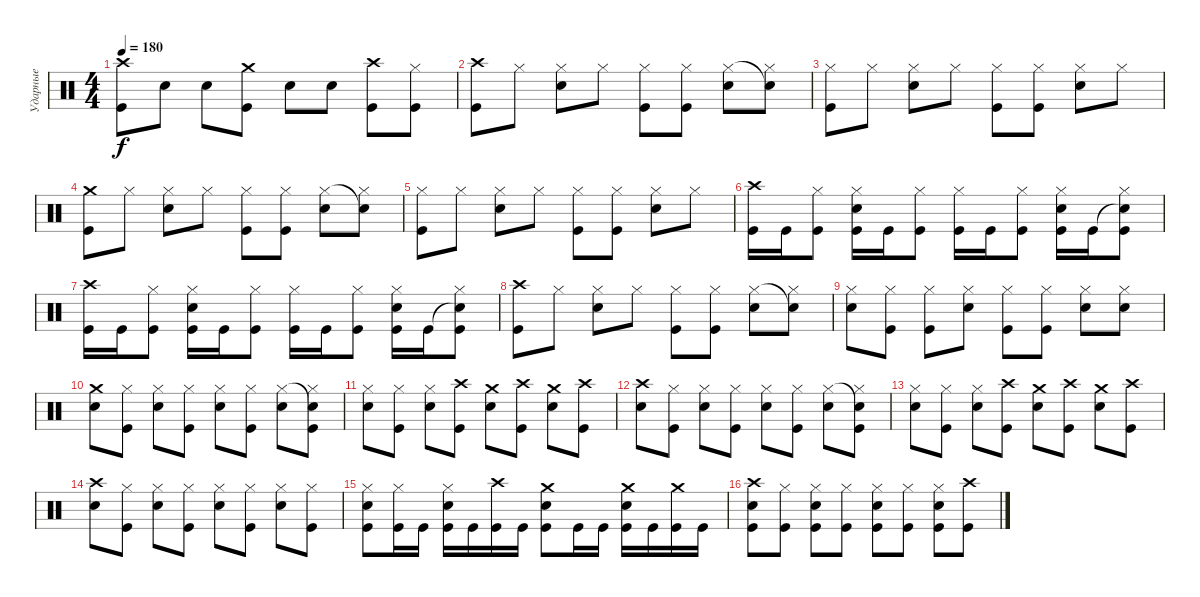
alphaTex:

\track ("Ударные" "Ударные") {instrument percussion}
\staff {score}
\articulation defaults
\ts (4 4)
\tempo 180
\clef neutral
\ks c
("Crash high (hit)" "Kick (hit)").8{dy f} "Electric Snare (hit)".8 "Electric Snare (hit)".8 ("Crash medium (hit)" "Kick (hit)").8 "Electric Snare (hit)".8 "Electric Snare (hit)".8 ("Crash high (hit)" "Kick (hit)").8 ("Hi-Hat (closed)" "Kick (hit)").8 |
("Crash high (hit)" "Kick (hit)").8 "Hi-Hat (closed)".8 ("Hi-Hat (closed)" "Electric Snare (hit)").8 "Hi-Hat (closed)".8 ("Hi-Hat (closed)" "Kick (hit)").8 ("Hi-Hat (closed)" "Kick (hit)").8 ("Hi-Hat (closed)" "Electric Snare (hit)").8 ("Snare (hit)"{t} "Hi-Hat (closed)").8 |
("Hi-Hat (closed)" "Kick (hit)").8 "Hi-Hat (closed)".8 ("Hi-Hat (closed)" "Electric Snare (hit)").8 "Hi-Hat (closed)".8 ("Hi-Hat (closed)" "Kick (hit)").8 ("Hi-Hat (closed)" "Kick (hit)").8 ("Hi-Hat (closed)" "Electric Snare (hit)").8 "Hi-Hat (closed)".8 |
("Crash medium (hit)" "Kick (hit)").8 "Hi-Hat (closed)".8 ("Hi-Hat (closed)" "Electric Snare (hit)").8 "Hi-Hat (closed)".8 ("Hi-Hat (closed)" "Kick (hit)").8 ("Hi-Hat (closed)" "Kick (hit)").8 ("Hi-Hat (closed)" "Electric Snare (hit)").8 ("Snare (hit)"{t} "Hi-Hat (closed)").8 |
("Hi-Hat (closed)" "Kick (hit)").8 "Hi-Hat (closed)".8 ("Hi-Hat (closed)" "Electric Snare (hit)").8 "Hi-Hat (closed)".8 ("Hi-Hat (closed)" "Kick (hit)").8 ("Hi-Hat (closed)" "Kick (hit)").8 ("Hi-Hat (closed)" "Electric Snare (hit)").8 "Hi-Hat (closed)".8 |
("Crash high (hit)" "Kick (hit)").16 "Kick (hit)".16 ("Hi-Hat (closed)" "Kick (hit)").8 ("Hi-Hat (closed)" "Electric Snare (hit)" "Kick (hit)").16 "Kick (hit)".16 ("Hi-Hat (closed)" "Kick (hit)").8 ("Hi-Hat (closed)" "Kick (hit)").16 "Kick (hit)".16 ("Hi-Hat (closed)" "Kick (hit)").8 ("Hi-Hat (closed)" "Electric Snare (hit)" "Kick (hit)").16 "Kick (hit)".16 ("Snare (hit)"{t} "Hi-Hat (closed)" "Kick (hit)").8 |
("Crash high (hit)" "Kick (hit)").16 "Kick (hit)".16 ("Hi-Hat (closed)" "Kick (hit)").8 ("Hi-Hat (closed)" "Electric Snare (hit)" "Kick (hit)").16 "Kick (hit)".16 ("Hi-Hat (closed)" "Kick (hit)").8 ("Hi-Hat (closed)" "Kick (hit)").16 "Kick (hit)".16 ("Hi-Hat (closed)" "Kick (hit)").8 ("Hi-Hat (closed)" "Electric Snare (hit)" "Kick (hit)").16 "Kick (hit)".16 ("Snare (hit)"{t} "Hi-Hat (closed)" "Kick (hit)").8 |
("Crash high (hit)" "Kick (hit)").8 "Hi-Hat (closed)".8 ("Hi-Hat (closed)" "Electric Snare (hit)").8 "Hi-Hat (closed)".8 ("Hi-Hat (closed)" "Kick (hit)").8 ("Hi-Hat (closed)" "Kick (hit)").8 ("Hi-Hat (closed)" "Electric Snare (hit)").8 ("Snare (hit)"{t} "Hi-Hat (closed)").8 |
("Hi-Hat (closed)" "Electric Snare (hit)").8 ("Hi-Hat (closed)" "Kick (hit)").8 ("Hi-Hat (closed)" "Kick (hit)").8 ("Hi-Hat (closed)" "Electric Snare (hit)").8 ("Hi-Hat (closed)" "Kick (hit)").8 ("Hi-Hat (closed)" "Kick (hit)").8 ("Hi-Hat (closed)" "Electric Snare (hit)").8 ("Hi-Hat (closed)" "Electric Snare (hit)").8 |
("Crash medium (hit)" "Electric Snare (hit)").8 ("Hi-Hat (closed)" "Kick (hit)").8 ("Hi-Hat (closed)" "Electric Snare (hit)").8 ("Hi-Hat (closed)" "Kick (hit)").8 ("Hi-Hat (closed)" "Electric Snare (hit)").8 ("Hi-Hat (closed)" "Kick (hit)").8 ("Hi-Hat (closed)" "Electric Snare (hit)").8 ("Snare (hit)"{t} "Hi-Hat (closed)" "Kick (hit)").8 |
("Hi-Hat (closed)" "Electric Snare (hit)").8 ("Hi-Hat (closed)" "Kick (hit)").8 ("Hi-Hat (closed)" "Electric Snare (hit)").8 ("Crash high (hit)" "Kick (hit)").8 ("Crash medium (hit)" "Electric Snare (hit)").8 ("Crash high (hit)" "Kick (hit)").8 ("Crash medium (hit)" "Electric Snare (hit)").8 ("Crash high (hit)" "Kick (hit)").8 |
("Crash high (hit)" "Electric Snare (hit)").8 ("Hi-Hat (closed)" "Kick (hit)").8 ("Hi-Hat (closed)" "Electric Snare (hit)").8 ("Hi-Hat (closed)" "Kick (hit)").8 ("Hi-Hat (closed)" "Electric Snare (hit)").8 ("Hi-Hat (closed)" "Kick (hit)").8 ("Hi-Hat (closed)" "Electric Snare (hit)").8 ("Snare (hit)"{t} "Hi-Hat (closed)" "Kick (hit)").8 |
("Hi-Hat (closed)" "Electric Snare (hit)").8 ("Hi-Hat (closed)" "Kick (hit)").8 ("Hi-Hat (closed)" "Electric Snare (hit)").8 ("Crash high (hit)" "Kick (hit)").8 ("Crash medium (hit)" "Electric Snare (hit)").8 ("Crash high (hit)" "Kick (hit)").8 ("Crash medium (hit)" "Electric Snare (hit)").8 ("Crash high (hit)" "Kick (hit)").8 |
("Crash high (hit)" "Electric Snare (hit)").8 ("Hi-Hat (closed)" "Kick (hit)").8 ("Hi-Hat (closed)" "Electric Snare (hit)").8 ("Hi-Hat (closed)" "Kick (hit)").8 ("Hi-Hat (closed)" "Electric Snare (hit)").8 ("Hi-Hat (closed)" "Kick (hit)").8 ("Hi-Hat (closed)" "Electric Snare (hit)").8 ("Hi-Hat (closed)" "Kick (hit)").8 |
("Hi-Hat (closed)" "Electric Snare (hit)" "Kick (hit)").8 ("Hi-Hat (closed)" "Kick (hit)").16 "Kick (hit)".16 ("Hi-Hat (closed)" "Electric Snare (hit)" "Kick (hit)").16 "Kick (hit)".16 ("Crash high (hit)" "Kick (hit)").16 "Kick (hit)".16 ("Crash medium (hit)" "Electric Snare (hit)" "Kick (hit)").8 "Kick (hit)".16 "Kick (hit)".16 ("Crash medium (hit)" "Electric Snare (hit)" "Kick (hit)").16 "Kick (hit)".16 ("Crash medium (hit)" "Kick (hit)").16 "Kick (hit)".16 |
("Crash high (hit)" "Electric Snare (hit)" "Kick (hit)").8 ("Hi-Hat (closed)" "Kick (hit)").8 ("Hi-Hat (closed)" "Electric Snare (hit)" "Kick (hit)").8 ("Hi-Hat (closed)" "Kick (hit)").8 ("Hi-Hat (closed)" "Electric Snare (hit)" "Kick (hit)").8 ("Hi-Hat (closed)" "Kick (hit)").8 ("Hi-Hat (closed)" "Electric Snare (hit)" "Kick (hit)").8 ("Crash high (hit)" "Kick (hit)").8
